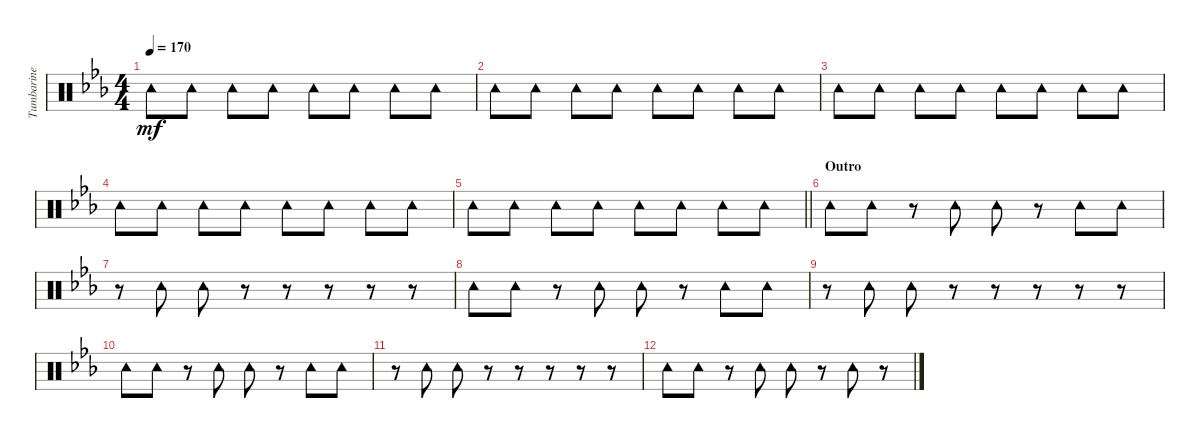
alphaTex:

\track ("Tumbarine" "Tumbarine") {solo instrument percussion}
\staff {score}
\articulation defaults
\ts (4 4)
\tempo 170
\clef neutral
\ks eb "Tambourine (hit)".8{dy mf} "Tambourine (hit)".8 "Tambourine (hit)".8 "Tambourine (hit)".8 "Tambourine (hit)".8 "Tambourine (hit)".8 "Tambourine (hit)".8 "Tambourine (hit)".8
|
"Tambourine (hit)".8 "Tambourine (hit)".8 "Tambourine (hit)".8 "Tambourine (hit)".8 "Tambourine (hit)".8 "Tambourine (hit)".8 "Tambourine (hit)".8 "Tambourine (hit)".8 |
"Tambourine (hit)".8 "Tambourine (hit)".8 "Tambourine (hit)".8 "Tambourine (hit)".8 "Tambourine (hit)".8 "Tambourine (hit)".8 "Tambourine (hit)".8 "Tambourine (hit)".8 |
"Tambourine (hit)".8 "Tambourine (hit)".8 "Tambourine (hit)".8 "Tambourine (hit)".8 "Tambourine (hit)".8 "Tambourine (hit)".8 "Tambourine (hit)".8 "Tambourine (hit)".8 |
\barLineRight lightlight "Tambourine (hit)".8 "Tambourine (hit)".8 "Tambourine (hit)".8 "Tambourine (hit)".8 "Tambourine (hit)".8 "Tambourine (hit)".8 "Tambourine (hit)".8 "Tambourine (hit)".8
|
\section ("" "Outro")
"Tambourine (hit)".8 "Tambourine (hit)".8 r.8 "Tambourine (hit)".8 "Tambourine (hit)".8 r.8 "Tambourine (hit)".8 "Tambourine (hit)".8 |
r.8 "Tambourine (hit)".8 "Tambourine (hit)".8 r.8 r.8 r.8 r.8 r.8 |
"Tambourine (hit)".8 "Tambourine (hit)".8 r.8 "Tambourine (hit)".8 "Tambourine (hit)".8 r.8 "Tambourine (hit)".8 "Tambourine (hit)".8 |
r.8 "Tambourine (hit)".8 "Tambourine (hit)".8 r.8 r.8 r.8 r.8 r.8 |
"Tambourine (hit)".8 "Tambourine (hit)".8 r.8 "Tambourine (hit)".8 "Tambourine (hit)".8 r.8 "Tambourine (hit)".8 "Tambourine (hit)".8 |
r.8 "Tambourine (hit)".8 "Tambourine (hit)".8 r.8 r.8 r.8 r.8 r.8 |
"Tambourine (hit)".8 "Tambourine (hit)".8 r.8 "Tambourine (hit)".8 "Tambourine (hit)".8 r.8 "Tambourine (hit)".8 r.8
